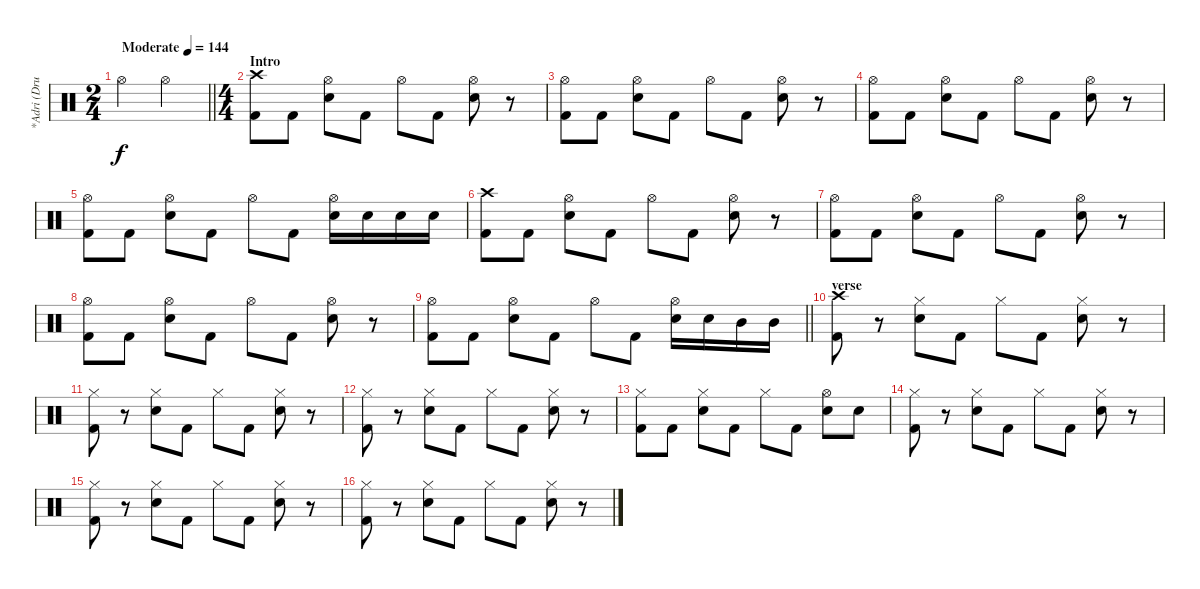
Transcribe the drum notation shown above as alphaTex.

\track ("*Adri (Drum)" "*Adri (Dru") {instrument percussion}
\staff {score}
\articulation defaults
\ts (2 4)
\tempo (144 "Moderate")
\clef neutral
\barLineRight lightlight
\ks c "Hi-Hat (open)".4{dy f} "Hi-Hat (open)".4
|
\ts (4 4)
\section ("" "Intro")
("Crash high (hit)" "Kick (hit) 2").8 "Kick (hit) 2".8 ("Hi-Hat (open)" "Electric Snare (hit)").8 "Kick (hit) 2".8 "Hi-Hat (open)".8 "Kick (hit) 2".8 ("Hi-Hat (open)" "Electric Snare (hit)").8 r.8 |
("Hi-Hat (open)" "Kick (hit) 2").8 "Kick (hit) 2".8 ("Hi-Hat (open)" "Electric Snare (hit)").8 "Kick (hit) 2".8 "Hi-Hat (open)".8 "Kick (hit) 2".8 ("Hi-Hat (open)" "Electric Snare (hit)").8 r.8 |
("Hi-Hat (open)" "Kick (hit) 2").8 "Kick (hit) 2".8 ("Hi-Hat (open)" "Electric Snare (hit)").8 "Kick (hit) 2".8 "Hi-Hat (open)".8 "Kick (hit) 2".8 ("Hi-Hat (open)" "Electric Snare (hit)").8 r.8 |
("Hi-Hat (open)" "Kick (hit) 2").8 "Kick (hit) 2".8 ("Hi-Hat (open)" "Electric Snare (hit)").8 "Kick (hit) 2".8 "Hi-Hat (open)".8 "Kick (hit) 2".8 ("Hi-Hat (open)" "Electric Snare (hit)").16 "Electric Snare (hit)".16 "Electric Snare (hit)".16 "Electric Snare (hit)".16 |
("Crash high (hit)" "Kick (hit) 2").8 "Kick (hit) 2".8 ("Hi-Hat (open)" "Electric Snare (hit)").8 "Kick (hit) 2".8 "Hi-Hat (open)".8 "Kick (hit) 2".8 ("Hi-Hat (open)" "Electric Snare (hit)").8 r.8 |
("Hi-Hat (open)" "Kick (hit) 2").8 "Kick (hit) 2".8 ("Hi-Hat (open)" "Electric Snare (hit)").8 "Kick (hit) 2".8 "Hi-Hat (open)".8 "Kick (hit) 2".8 ("Hi-Hat (open)" "Electric Snare (hit)").8 r.8 |
("Hi-Hat (open)" "Kick (hit) 2").8 "Kick (hit) 2".8 ("Hi-Hat (open)" "Electric Snare (hit)").8 "Kick (hit) 2".8 "Hi-Hat (open)".8 "Kick (hit) 2".8 ("Hi-Hat (open)" "Electric Snare (hit)").8 r.8 |
\barLineRight lightlight
("Hi-Hat (open)" "Kick (hit) 2").8 "Kick (hit) 2".8 ("Hi-Hat (open)" "Electric Snare (hit)").8 "Kick (hit) 2".8 "Hi-Hat (open)".8 "Kick (hit) 2".8 ("Hi-Hat (open)" "Electric Snare (hit)").16 "Electric Snare (hit)".16 "Mid Tom (hit)".16 "Mid Tom (hit)".16 |
\section ("" "verse")
("Crash high (hit)" "Kick (hit) 2").8 r.8 ("Hi-Hat (closed)" "Electric Snare (hit)").8 "Kick (hit) 2".8 "Hi-Hat (closed)".8 "Kick (hit) 2".8 ("Hi-Hat (closed)" "Electric Snare (hit)").8 r.8 |
("Hi-Hat (closed)" "Kick (hit) 2").8 r.8 ("Hi-Hat (closed)" "Electric Snare (hit)").8 "Kick (hit) 2".8 "Hi-Hat (closed)".8 "Kick (hit) 2".8 ("Hi-Hat (closed)" "Electric Snare (hit)").8 r.8 |
("Hi-Hat (closed)" "Kick (hit) 2").8 r.8 ("Hi-Hat (closed)" "Electric Snare (hit)").8 "Kick (hit) 2".8 "Hi-Hat (closed)".8 "Kick (hit) 2".8 ("Hi-Hat (closed)" "Electric Snare (hit)").8 r.8 |
("Hi-Hat (closed)" "Kick (hit) 2").8 "Kick (hit) 2".8 ("Hi-Hat (closed)" "Electric Snare (hit)").8 "Kick (hit) 2".8 "Hi-Hat (closed)".8 "Kick (hit) 2".8 ("Hi-Hat (open)" "Electric Snare (hit)").8 "Electric Snare (hit)".8 |
("Hi-Hat (closed)" "Kick (hit) 2").8 r.8 ("Hi-Hat (closed)" "Electric Snare (hit)").8 "Kick (hit) 2".8 "Hi-Hat (closed)".8 "Kick (hit) 2".8 ("Hi-Hat (closed)" "Electric Snare (hit)").8 r.8 |
("Hi-Hat (closed)" "Kick (hit) 2").8 r.8 ("Hi-Hat (closed)" "Electric Snare (hit)").8 "Kick (hit) 2".8 "Hi-Hat (closed)".8 "Kick (hit) 2".8 ("Hi-Hat (closed)" "Electric Snare (hit)").8 r.8 |
("Hi-Hat (closed)" "Kick (hit) 2").8 r.8 ("Hi-Hat (closed)" "Electric Snare (hit)").8 "Kick (hit) 2".8 "Hi-Hat (closed)".8 "Kick (hit) 2".8 ("Hi-Hat (closed)" "Electric Snare (hit)").8 r.8
